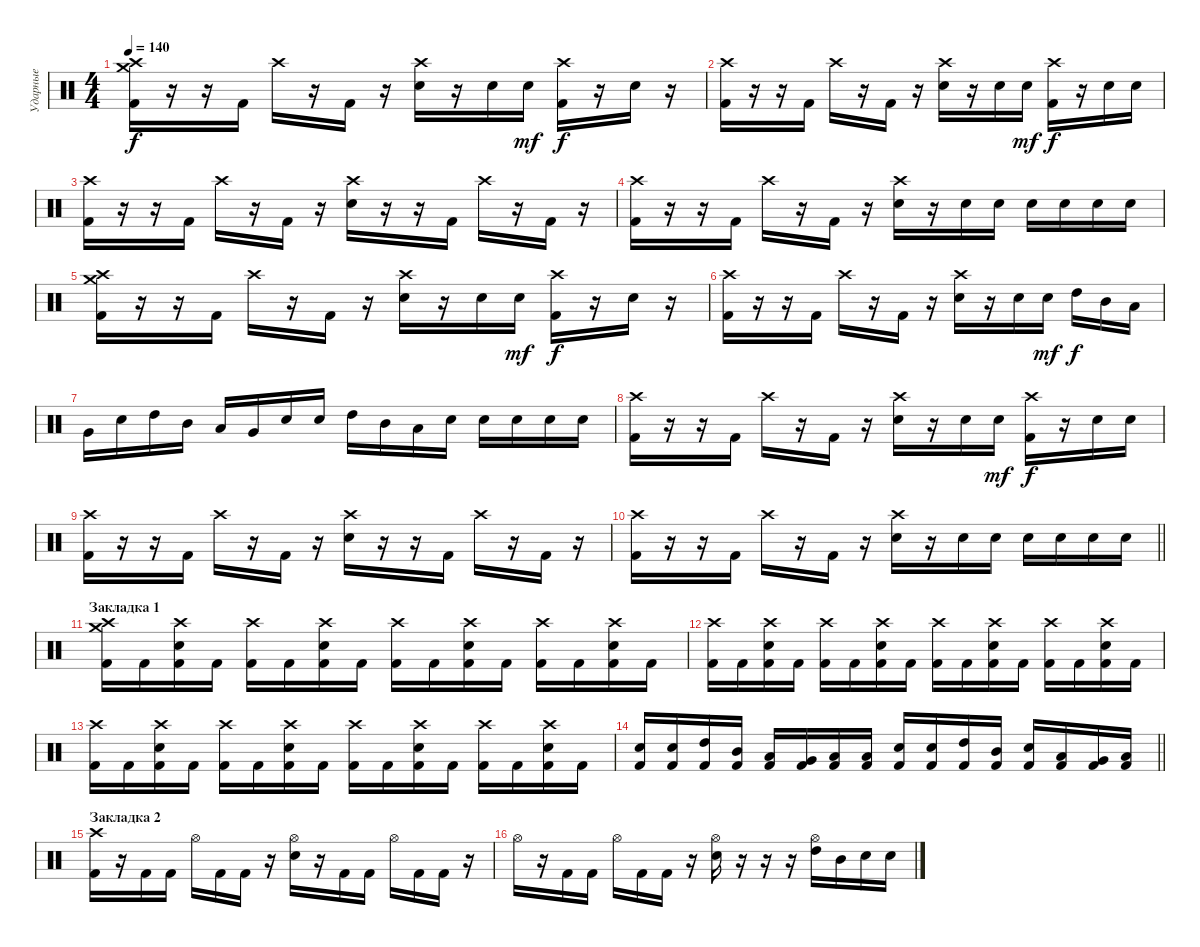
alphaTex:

\track ("Ударные" "Ударные") {instrument percussion}
\staff {score}
\articulation defaults
\ts (4 4)
\tempo 140
\clef neutral
\ks c
("Crash high (hit)" "Crash medium (hit)" "Kick (hit) 2").16{dy f} r.16 r.16 "Kick (hit) 2".16 "Crash high (hit)".16 r.16 "Kick (hit) 2".16 r.16 ("Crash high (hit)" "Electric Snare (hit)").16 r.16 "Electric Snare (hit)".16 "Electric Snare (hit)".16{dy mf} ("Crash high (hit)" "Kick (hit) 2").16{dy f} r.16 "Electric Snare (hit)".16 r.16 |
("Crash high (hit)" "Kick (hit) 2").16 r.16 r.16 "Kick (hit) 2".16 "Crash high (hit)".16 r.16 "Kick (hit) 2".16 r.16 ("Crash high (hit)" "Electric Snare (hit)").16 r.16 "Electric Snare (hit)".16 "Electric Snare (hit)".16{dy mf} ("Crash high (hit)" "Kick (hit) 2").16{dy f} r.16 "Electric Snare (hit)".16 "Electric Snare (hit)".16 |
("Crash high (hit)" "Kick (hit) 2").16 r.16 r.16 "Kick (hit) 2".16 "Crash high (hit)".16 r.16 "Kick (hit) 2".16 r.16 ("Crash high (hit)" "Electric Snare (hit)").16 r.16 r.16 "Kick (hit) 2".16 "Crash high (hit)".16 r.16 "Kick (hit) 2".16 r.16 |
("Crash high (hit)" "Kick (hit) 2").16 r.16 r.16 "Kick (hit) 2".16 "Crash high (hit)".16 r.16 "Kick (hit) 2".16 r.16 ("Crash high (hit)" "Electric Snare (hit)").16 r.16 "Electric Snare (hit)".16 "Electric Snare (hit)".16 "Electric Snare (hit)".16 "Electric Snare (hit)".16 "Electric Snare (hit)".16 "Electric Snare (hit)".16 |
("Crash high (hit)" "Crash medium (hit)" "Kick (hit) 2").16 r.16 r.16 "Kick (hit) 2".16 "Crash high (hit)".16 r.16 "Kick (hit) 2".16 r.16 ("Crash high (hit)" "Electric Snare (hit)").16 r.16 "Electric Snare (hit)".16 "Electric Snare (hit)".16{dy mf} ("Crash high (hit)" "Kick (hit) 2").16{dy f} r.16 "Electric Snare (hit)".16 r.16 |
("Crash high (hit)" "Kick (hit) 2").16 r.16 r.16 "Kick (hit) 2".16 "Crash high (hit)".16 r.16 "Kick (hit) 2".16 r.16 ("Crash high (hit)" "Electric Snare (hit)").16 r.16 "Electric Snare (hit)".16 "Electric Snare (hit)".16{dy mf} "High Tom (hit)".16{dy f} "Mid Tom (hit)".16 "Low Tom (hit)".16 |
"Very Low Tom (hit)".16 "Electric Snare (hit)".16 "High Tom (hit)".16 "Mid Tom (hit)".16 "Low Tom (hit)".16 "Very Low Tom (hit)".16 "Electric Snare (hit)".16 "Electric Snare (hit)".16 "High Tom (hit)".16 "Mid Tom (hit)".16 "Low Tom (hit)".16 "Electric Snare (hit)".16 "Electric Snare (hit)".16 "Electric Snare (hit)".16 "Electric Snare (hit)".16 "Electric Snare (hit)".16 |
("Crash high (hit)" "Kick (hit) 2").16 r.16 r.16 "Kick (hit) 2".16 "Crash high (hit)".16 r.16 "Kick (hit) 2".16 r.16 ("Crash high (hit)" "Electric Snare (hit)").16 r.16 "Electric Snare (hit)".16 "Electric Snare (hit)".16{dy mf} ("Crash high (hit)" "Kick (hit) 2").16{dy f} r.16 "Electric Snare (hit)".16 "Electric Snare (hit)".16 |
("Crash high (hit)" "Kick (hit) 2").16 r.16 r.16 "Kick (hit) 2".16 "Crash high (hit)".16 r.16 "Kick (hit) 2".16 r.16 ("Crash high (hit)" "Electric Snare (hit)").16 r.16 r.16 "Kick (hit) 2".16 "Crash high (hit)".16 r.16 "Kick (hit) 2".16 r.16 |
\barLineRight lightlight
("Crash high (hit)" "Kick (hit) 2").16 r.16 r.16 "Kick (hit) 2".16 "Crash high (hit)".16 r.16 "Kick (hit) 2".16 r.16 ("Crash high (hit)" "Electric Snare (hit)").16 r.16 "Electric Snare (hit)".16 "Electric Snare (hit)".16 "Electric Snare (hit)".16 "Electric Snare (hit)".16 "Electric Snare (hit)".16 "Electric Snare (hit)".16 |
\section ("" "Закладка 1")
("Crash high (hit)" "Crash medium (hit)" "Kick (hit) 2").16 "Kick (hit) 2".16 ("Crash high (hit)" "Electric Snare (hit)" "Kick (hit) 2").16 "Kick (hit) 2".16 ("Crash high (hit)" "Kick (hit) 2").16 "Kick (hit) 2".16 ("Crash high (hit)" "Electric Snare (hit)" "Kick (hit) 2").16 "Kick (hit) 2".16 ("Crash high (hit)" "Kick (hit) 2").16 "Kick (hit) 2".16 ("Crash high (hit)" "Electric Snare (hit)" "Kick (hit) 2").16 "Kick (hit) 2".16 ("Crash high (hit)" "Kick (hit) 2").16 "Kick (hit) 2".16 ("Crash high (hit)" "Electric Snare (hit)" "Kick (hit) 2").16 "Kick (hit) 2".16 |
("Crash high (hit)" "Kick (hit) 2").16 "Kick (hit) 2".16 ("Crash high (hit)" "Electric Snare (hit)" "Kick (hit) 2").16 "Kick (hit) 2".16 ("Crash high (hit)" "Kick (hit) 2").16 "Kick (hit) 2".16 ("Crash high (hit)" "Electric Snare (hit)" "Kick (hit) 2").16 "Kick (hit) 2".16 ("Crash high (hit)" "Kick (hit) 2").16 "Kick (hit) 2".16 ("Crash high (hit)" "Electric Snare (hit)" "Kick (hit) 2").16 "Kick (hit) 2".16 ("Crash high (hit)" "Kick (hit) 2").16 "Kick (hit) 2".16 ("Crash high (hit)" "Electric Snare (hit)" "Kick (hit) 2").16 "Kick (hit) 2".16 |
("Crash high (hit)" "Kick (hit) 2").16 "Kick (hit) 2".16 ("Crash high (hit)" "Electric Snare (hit)" "Kick (hit) 2").16 "Kick (hit) 2".16 ("Crash high (hit)" "Kick (hit) 2").16 "Kick (hit) 2".16 ("Crash high (hit)" "Electric Snare (hit)" "Kick (hit) 2").16 "Kick (hit) 2".16 ("Crash high (hit)" "Kick (hit) 2").16 "Kick (hit) 2".16 ("Crash high (hit)" "Electric Snare (hit)" "Kick (hit) 2").16 "Kick (hit) 2".16 ("Crash high (hit)" "Kick (hit) 2").16 "Kick (hit) 2".16 ("Crash high (hit)" "Electric Snare (hit)" "Kick (hit) 2").16 "Kick (hit) 2".16 |
\barLineRight lightlight
("Electric Snare (hit)" "Kick (hit) 2").16 ("Electric Snare (hit)" "Kick (hit) 2").16 ("High Tom (hit)" "Kick (hit) 2").16 ("Mid Tom (hit)" "Kick (hit) 2").16 ("Low Tom (hit)" "Kick (hit) 2").16 ("Very Low Tom (hit)" "Kick (hit) 2").16 ("Low Floor Tom (hit)" "Kick (hit) 2").16 ("Low Floor Tom (hit)" "Kick (hit) 2").16 ("Electric Snare (hit)" "Kick (hit) 2").16 ("Electric Snare (hit)" "Kick (hit) 2").16 ("High Tom (hit)" "Kick (hit) 2").16 ("Mid Tom (hit)" "Kick (hit) 2").16 ("Electric Snare (hit)" "Kick (hit) 2").16 ("Low Tom (hit)" "Kick (hit) 2").16 ("Very Low Tom (hit)" "Kick (hit) 2").16 ("Low Floor Tom (hit)" "Kick (hit) 2").16 |
\section ("" "Закладка 2")
("Crash high (hit)" "Kick (hit) 2").16 r.16 "Kick (hit) 2".16 "Kick (hit) 2".16 "Hi-Hat (open)".16 "Kick (hit) 2".16 "Kick (hit) 2".16 r.16 ("Hi-Hat (open)" "Electric Snare (hit)").16 r.16 "Kick (hit) 2".16 "Kick (hit) 2".16 "Hi-Hat (open)".16 "Kick (hit) 2".16 "Kick (hit) 2".16 r.16 |
"Hi-Hat (open)".16 r.16 "Kick (hit) 2".16 "Kick (hit) 2".16 "Hi-Hat (open)".16 "Kick (hit) 2".16 "Kick (hit) 2".16 r.16 ("Hi-Hat (open)" "Electric Snare (hit)").16 r.16 r.16 r.16 ("Hi-Hat (open)" "High Tom (hit)").16 "Mid Tom (hit)".16 "Electric Snare (hit)".16 "Electric Snare (hit)".16
